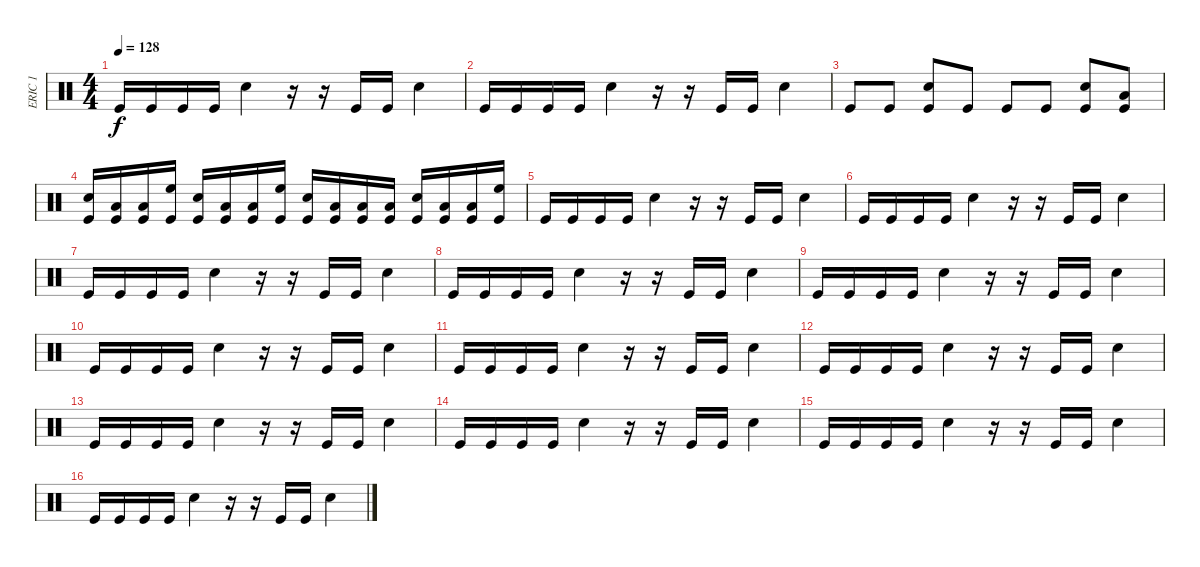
\track ("ERIC 1" "ERIC 1") {instrument percussion}
\staff {score}
\articulation defaults
\ts (4 4)
\tempo 128
\clef neutral
\ks c "Kick (hit)".16{dy f} "Kick (hit)".16 "Kick (hit)".16 "Kick (hit)".16 "Electric Snare (hit)".4
r.16 r.16 "Kick (hit)".16 "Kick (hit)".16 "Electric Snare (hit)".4 |
"Kick (hit)".16 "Kick (hit)".16 "Kick (hit)".16 "Kick (hit)".16 "Electric Snare (hit)".4 r.16 r.16 "Kick (hit)".16 "Kick (hit)".16 "Electric Snare (hit)".4 |
"Kick (hit)".8 "Kick (hit)".8 ("Electric Snare (hit)" "Kick (hit)").8 "Kick (hit)".8 "Kick (hit)".8 "Kick (hit)".8 ("Electric Snare (hit)" "Kick (hit)").8 ("Low Floor Tom (hit)" "Kick (hit)").8 |
("Electric Snare (hit)" "Kick (hit)").16 ("Low Floor Tom (hit)" "Kick (hit)").16 ("Low Tom (hit)" "Kick (hit)").16 ("High Floor Tom (hit)" "Kick (hit)").16 ("Electric Snare (hit)" "Kick (hit)").16 ("Low Floor Tom (hit)" "Kick (hit)").16 ("Low Tom (hit)" "Kick (hit)").16 ("High Floor Tom (hit)" "Kick (hit)").16 ("Electric Snare (hit)" "Kick (hit)").16 ("Low Floor Tom (hit)" "Kick (hit)").16 ("Low Tom (hit)" "Kick (hit)").16 ("Low Floor Tom (hit)" "Kick (hit)").16 ("Electric Snare (hit)" "Kick (hit)").16 ("Low Floor Tom (hit)" "Kick (hit)").16 ("Low Tom (hit)" "Kick (hit)").16 ("High Floor Tom (hit)" "Kick (hit)").16 |
"Kick (hit)".16 "Kick (hit)".16 "Kick (hit)".16 "Kick (hit)".16 "Electric Snare (hit)".4 r.16 r.16 "Kick (hit)".16 "Kick (hit)".16 "Electric Snare (hit)".4 |
"Kick (hit)".16 "Kick (hit)".16 "Kick (hit)".16 "Kick (hit)".16 "Electric Snare (hit)".4 r.16 r.16 "Kick (hit)".16 "Kick (hit)".16 "Electric Snare (hit)".4 |
"Kick (hit)".16 "Kick (hit)".16 "Kick (hit)".16 "Kick (hit)".16 "Electric Snare (hit)".4 r.16 r.16 "Kick (hit)".16 "Kick (hit)".16 "Electric Snare (hit)".4 |
"Kick (hit)".16 "Kick (hit)".16 "Kick (hit)".16 "Kick (hit)".16 "Electric Snare (hit)".4 r.16 r.16 "Kick (hit)".16 "Kick (hit)".16 "Electric Snare (hit)".4 |
"Kick (hit)".16 "Kick (hit)".16 "Kick (hit)".16 "Kick (hit)".16 "Electric Snare (hit)".4 r.16 r.16 "Kick (hit)".16 "Kick (hit)".16 "Electric Snare (hit)".4 |
"Kick (hit)".16 "Kick (hit)".16 "Kick (hit)".16 "Kick (hit)".16 "Electric Snare (hit)".4 r.16 r.16 "Kick (hit)".16 "Kick (hit)".16 "Electric Snare (hit)".4 |
"Kick (hit)".16 "Kick (hit)".16 "Kick (hit)".16 "Kick (hit)".16 "Electric Snare (hit)".4 r.16 r.16 "Kick (hit)".16 "Kick (hit)".16 "Electric Snare (hit)".4 |
"Kick (hit)".16 "Kick (hit)".16 "Kick (hit)".16 "Kick (hit)".16 "Electric Snare (hit)".4 r.16 r.16 "Kick (hit)".16 "Kick (hit)".16 "Electric Snare (hit)".4 |
"Kick (hit)".16 "Kick (hit)".16 "Kick (hit)".16 "Kick (hit)".16 "Electric Snare (hit)".4 r.16 r.16 "Kick (hit)".16 "Kick (hit)".16 "Electric Snare (hit)".4 |
"Kick (hit)".16 "Kick (hit)".16 "Kick (hit)".16 "Kick (hit)".16 "Electric Snare (hit)".4 r.16 r.16 "Kick (hit)".16 "Kick (hit)".16 "Electric Snare (hit)".4 |
"Kick (hit)".16 "Kick (hit)".16 "Kick (hit)".16 "Kick (hit)".16 "Electric Snare (hit)".4 r.16 r.16 "Kick (hit)".16 "Kick (hit)".16 "Electric Snare (hit)".4 |
"Kick (hit)".16 "Kick (hit)".16 "Kick (hit)".16 "Kick (hit)".16 "Electric Snare (hit)".4 r.16 r.16 "Kick (hit)".16 "Kick (hit)".16 "Electric Snare (hit)".4
